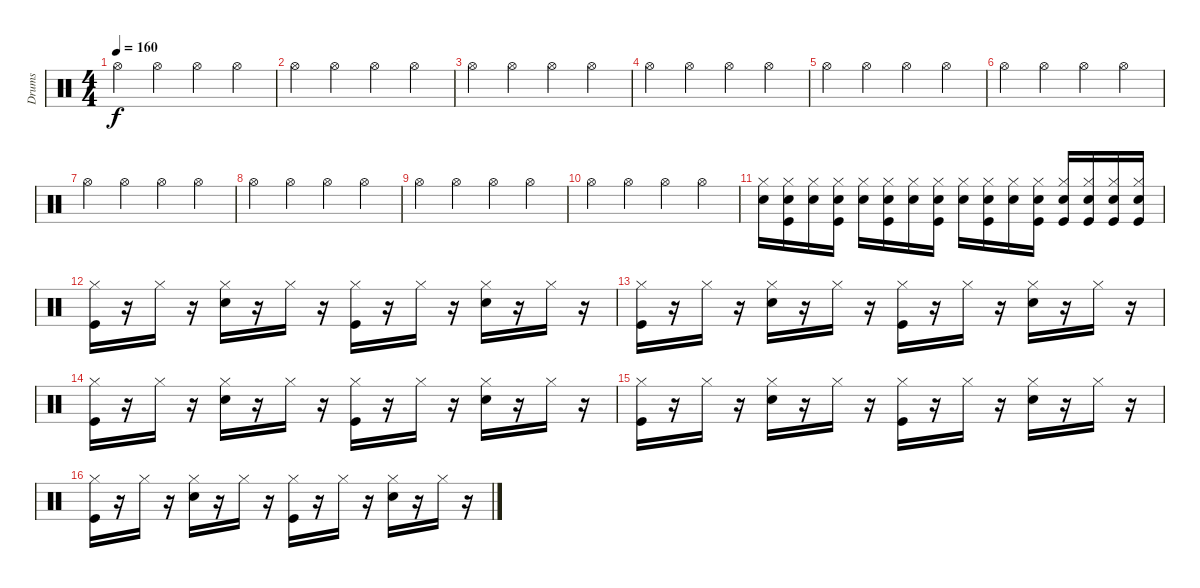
\track ("Drums               " "Drums     ") {instrument percussion}
\staff {score}
\articulation defaults
\ts (4 4)
\tempo 160
\clef neutral
\ks c "Hi-Hat (open)".4{dy f} "Hi-Hat (open)".4 "Hi-Hat (open)".4 "Hi-Hat (open)".4
|
"Hi-Hat (open)".4 "Hi-Hat (open)".4 "Hi-Hat (open)".4 "Hi-Hat (open)".4 |
"Hi-Hat (open)".4 "Hi-Hat (open)".4 "Hi-Hat (open)".4 "Hi-Hat (open)".4 |
"Hi-Hat (open)".4 "Hi-Hat (open)".4 "Hi-Hat (open)".4 "Hi-Hat (open)".4 |
"Hi-Hat (open)".4 "Hi-Hat (open)".4 "Hi-Hat (open)".4 "Hi-Hat (open)".4 |
"Hi-Hat (open)".4 "Hi-Hat (open)".4 "Hi-Hat (open)".4 "Hi-Hat (open)".4 |
"Hi-Hat (open)".4 "Hi-Hat (open)".4 "Hi-Hat (open)".4 "Hi-Hat (open)".4 |
"Hi-Hat (open)".4 "Hi-Hat (open)".4 "Hi-Hat (open)".4 "Hi-Hat (open)".4 |
"Hi-Hat (open)".4 "Hi-Hat (open)".4 "Hi-Hat (open)".4 "Hi-Hat (open)".4 |
"Hi-Hat (open)".4 "Hi-Hat (open)".4 "Hi-Hat (open)".4 "Hi-Hat (open)".4 |
("Snare (hit) 2" "Hi-Hat (closed)").16 ("Snare (hit) 2" "Hi-Hat (closed)" "Kick (hit)").16 ("Snare (hit) 2" "Hi-Hat (closed)").16 ("Snare (hit) 2" "Hi-Hat (closed)" "Kick (hit)").16 ("Snare (hit) 2" "Hi-Hat (closed)").16 ("Snare (hit) 2" "Hi-Hat (closed)" "Kick (hit)").16 ("Snare (hit) 2" "Hi-Hat (closed)").16 ("Snare (hit) 2" "Hi-Hat (closed)" "Kick (hit)").16 ("Snare (hit) 2" "Hi-Hat (closed)").16 ("Snare (hit) 2" "Hi-Hat (closed)" "Kick (hit)").16 ("Snare (hit) 2" "Hi-Hat (closed)").16 ("Snare (hit) 2" "Hi-Hat (closed)" "Kick (hit)").16 ("Snare (hit) 2" "Hi-Hat (closed)" "Kick (hit)").16 ("Snare (hit) 2" "Hi-Hat (closed)" "Kick (hit)").16 ("Snare (hit) 2" "Hi-Hat (closed)" "Kick (hit)").16 ("Snare (hit) 2" "Hi-Hat (closed)" "Kick (hit)").16 |
("Kick (hit)" "Hi-Hat (closed)").16 r.16 "Hi-Hat (closed)".16 r.16 ("Snare (hit) 2" "Hi-Hat (closed)").16 r.16 "Hi-Hat (closed)".16 r.16 ("Kick (hit)" "Hi-Hat (closed)").16 r.16 "Hi-Hat (closed)".16 r.16 ("Snare (hit) 2" "Hi-Hat (closed)").16 r.16 "Hi-Hat (closed)".16 r.16 |
("Kick (hit)" "Hi-Hat (closed)").16 r.16 "Hi-Hat (closed)".16 r.16 ("Snare (hit) 2" "Hi-Hat (closed)").16 r.16 "Hi-Hat (closed)".16 r.16 ("Kick (hit)" "Hi-Hat (closed)").16 r.16 "Hi-Hat (closed)".16 r.16 ("Snare (hit) 2" "Hi-Hat (closed)").16 r.16 "Hi-Hat (closed)".16 r.16 |
("Kick (hit)" "Hi-Hat (closed)").16 r.16 "Hi-Hat (closed)".16 r.16 ("Snare (hit) 2" "Hi-Hat (closed)").16 r.16 "Hi-Hat (closed)".16 r.16 ("Kick (hit)" "Hi-Hat (closed)").16 r.16 "Hi-Hat (closed)".16 r.16 ("Snare (hit) 2" "Hi-Hat (closed)").16 r.16 "Hi-Hat (closed)".16 r.16 |
("Kick (hit)" "Hi-Hat (closed)").16 r.16 "Hi-Hat (closed)".16 r.16 ("Snare (hit) 2" "Hi-Hat (closed)").16 r.16 "Hi-Hat (closed)".16 r.16 ("Kick (hit)" "Hi-Hat (closed)").16 r.16 "Hi-Hat (closed)".16 r.16 ("Snare (hit) 2" "Hi-Hat (closed)").16 r.16 "Hi-Hat (closed)".16 r.16 |
("Kick (hit)" "Hi-Hat (closed)").16 r.16 "Hi-Hat (closed)".16 r.16 ("Snare (hit) 2" "Hi-Hat (closed)").16 r.16 "Hi-Hat (closed)".16 r.16 ("Kick (hit)" "Hi-Hat (closed)").16 r.16 "Hi-Hat (closed)".16 r.16 ("Snare (hit) 2" "Hi-Hat (closed)").16 r.16 "Hi-Hat (closed)".16 r.16
